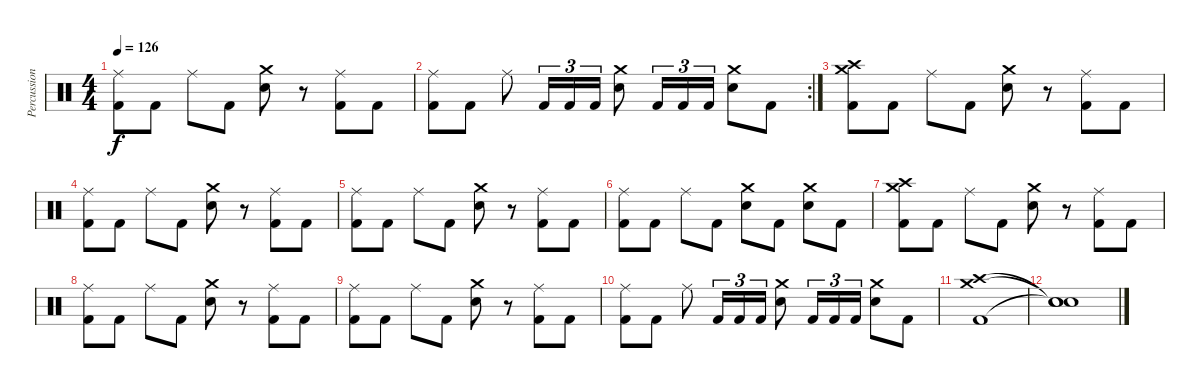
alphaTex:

\track ("Percussion" "Percussion") {instrument percussion}
\staff {score}
\articulation defaults
\ts (4 4)
\tempo 126
\clef neutral
\ks c
("Ride (middle)" "Kick (hit) 2").8{dy f} "Kick (hit) 2".8 "Ride (middle)".8 "Kick (hit) 2".8 ("Crash medium (hit)" "Electric Snare (hit)").8 r.8 ("Ride (middle)" "Kick (hit) 2").8 "Kick (hit) 2".8 |
\rc 2
("Ride (middle)" "Kick (hit) 2").8 "Kick (hit) 2".8 "Ride (middle)".8 "Kick (hit) 2".16{tu (3 2)} "Kick (hit) 2".16{tu (3 2)} "Kick (hit) 2".16{tu (3 2)} ("Crash medium (hit)" "Electric Snare (hit)").8 "Kick (hit) 2".16{tu (3 2)} "Kick (hit) 2".16{tu (3 2)} "Kick (hit) 2".16{tu (3 2)} ("Crash medium (hit)" "Electric Snare (hit)").8 "Kick (hit) 2".8 |
("Crash high (hit)" "Crash medium (hit)" "Kick (hit) 2").8 "Kick (hit) 2".8 "Ride (middle)".8 "Kick (hit) 2".8 ("Crash medium (hit)" "Electric Snare (hit)").8 r.8 ("Ride (middle)" "Kick (hit) 2").8 "Kick (hit) 2".8 |
("Ride (middle)" "Kick (hit) 2").8 "Kick (hit) 2".8 "Ride (middle)".8 "Kick (hit) 2".8 ("Crash medium (hit)" "Electric Snare (hit)").8 r.8 ("Ride (middle)" "Kick (hit) 2").8 "Kick (hit) 2".8 |
("Ride (middle)" "Kick (hit) 2").8 "Kick (hit) 2".8 "Ride (middle)".8 "Kick (hit) 2".8 ("Crash medium (hit)" "Electric Snare (hit)").8 r.8 ("Ride (middle)" "Kick (hit) 2").8 "Kick (hit) 2".8 |
("Ride (middle)" "Kick (hit) 2").8 "Kick (hit) 2".8 "Ride (middle)".8 "Kick (hit) 2".8 ("Crash medium (hit)" "Electric Snare (hit)").8 "Kick (hit) 2".8 ("Crash medium (hit)" "Electric Snare (hit)").8 "Kick (hit) 2".8 |
("Crash high (hit)" "Crash medium (hit)" "Kick (hit) 2").8 "Kick (hit) 2".8 "Ride (middle)".8 "Kick (hit) 2".8 ("Crash medium (hit)" "Electric Snare (hit)").8 r.8 ("Ride (middle)" "Kick (hit) 2").8 "Kick (hit) 2".8 |
("Ride (middle)" "Kick (hit) 2").8 "Kick (hit) 2".8 "Ride (middle)".8 "Kick (hit) 2".8 ("Crash medium (hit)" "Electric Snare (hit)").8 r.8 ("Ride (middle)" "Kick (hit) 2").8 "Kick (hit) 2".8 |
("Ride (middle)" "Kick (hit) 2").8 "Kick (hit) 2".8 "Ride (middle)".8 "Kick (hit) 2".8 ("Crash medium (hit)" "Electric Snare (hit)").8 r.8 ("Ride (middle)" "Kick (hit) 2").8 "Kick (hit) 2".8 |
("Ride (middle)" "Kick (hit) 2").8 "Kick (hit) 2".8 "Ride (middle)".8 "Kick (hit) 2".16{tu (3 2)} "Kick (hit) 2".16{tu (3 2)} "Kick (hit) 2".16{tu (3 2)} ("Crash medium (hit)" "Electric Snare (hit)").8 "Kick (hit) 2".16{tu (3 2)} "Kick (hit) 2".16{tu (3 2)} "Kick (hit) 2".16{tu (3 2)} ("Crash medium (hit)" "Electric Snare (hit)").8 "Kick (hit) 2".8 |
("Crash high (hit)" "Crash medium (hit)" "Kick (hit) 2").1 |
("Snare (hit)"{t} "Snare (hit)"{t} "Snare (hit)"{t}).1
